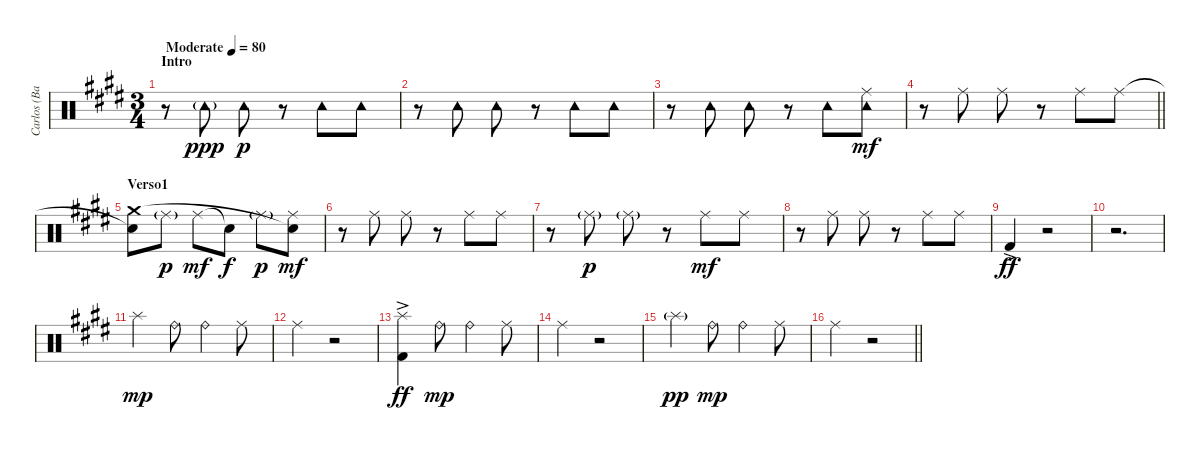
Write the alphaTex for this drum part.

\track ("Carlos (Batería)" "Carlos (Ba") {instrument percussion}
\staff
\articulation defaults
\ts (3 4)
\section ("" "Intro")
\tempo (80 "Moderate")
\clef neutral
\ks c#minor
r.8{dy ppp volume 8} "Tambourine (hit)"{g}.8 "Tambourine (hit)".8{dy p} r.8 "Tambourine (hit)".8 "Tambourine (hit)".8 |
r.8 "Tambourine (hit)".8 "Tambourine (hit)".8 r.8 "Tambourine (hit)".8 "Tambourine (hit)".8 |
r.8 "Tambourine (hit)".8 "Tambourine (hit)".8 r.8 "Tambourine (hit)".8 ("Tambourine (hit)" "Ride (middle)").8{dy mf} |
\barLineRight lightlight
r.8 "Ride (middle)".8 "Ride (middle)".8 r.8 "Ride (middle)".8 "Ride (middle)".8 |
\section ("" "Verso1")
("Snare (hit)"{t} "Crash medium (hit)").8 "Ride (middle)"{g}.8{dy p} "Ride (middle)".8{dy mf} "Snare (hit)"{t}.8{dy f} "Ride (middle)"{g}.8{dy p} ("Ride (middle)" "Snare (hit)"{t}).8{dy mf} |
r.8 "Ride (middle)".8 "Ride (middle)".8 r.8 "Ride (middle)".8 "Ride (middle)".8 |
r.8 "Ride (middle)"{g}.8{dy p} "Ride (middle)"{g}.8 r.8 "Ride (middle)".8{dy mf} "Ride (middle)".8 |
r.8 "Ride (middle)".8 "Ride (middle)".8 r.8 "Ride (middle)".8 "Ride (middle)".8 |
"Kick (hit) 2"{ac}.4{dy ff} r.2 |
r.2{d} |
"Splash (hit)".4{dy mp} "Ride (bell)".8 "Ride (bell)".4 "Ride (middle)".8 |
"Ride (middle)".4 r.2 |
("Splash (hit)" "Kick (hit) 2"{ac}).4{dy ff} "Ride (bell)".8{dy mp} "Ride (bell)".4 "Ride (middle)".8 |
"Ride (middle)".4 r.2 |
"Splash (hit)"{g}.4{dy pp} "Ride (bell)".8{dy mp} "Ride (bell)".4 "Ride (middle)".8 |
\barLineRight lightlight "Ride (middle)".4
r.2
